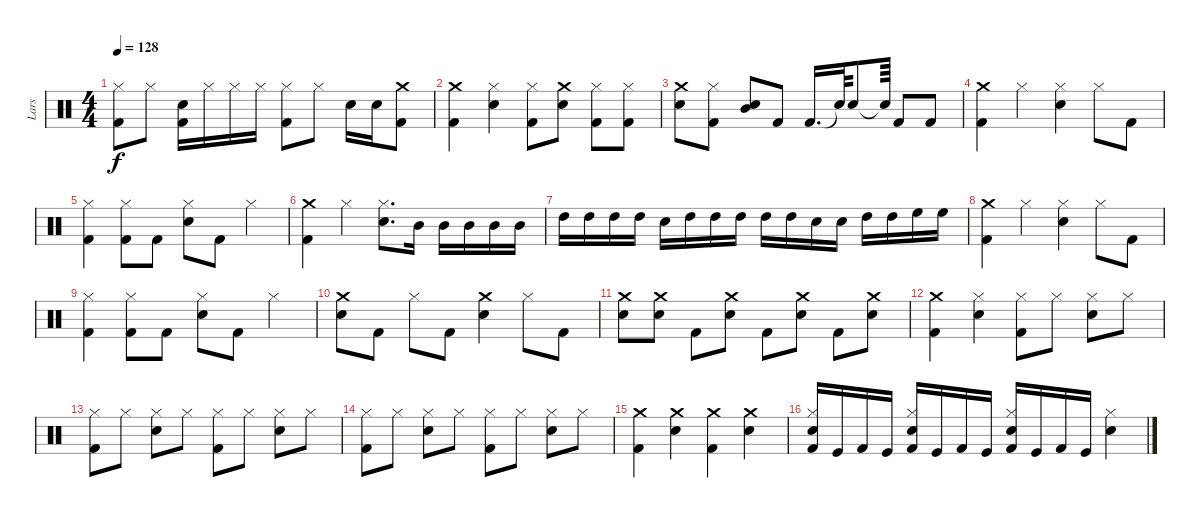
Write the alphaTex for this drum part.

\track ("Lars" "Lars") {instrument percussion}
\staff {score}
\articulation defaults
\ts (4 4)
\tempo 128
\clef neutral
\ks c
("Kick (hit) 2" "Hi-Hat (closed)").8{dy f} "Hi-Hat (closed)".8 ("Kick (hit) 2" "Snare (hit) 2").16 "Hi-Hat (closed)".16 "Hi-Hat (closed)".16 "Hi-Hat (closed)".16 ("Kick (hit) 2" "Hi-Hat (closed)").8 "Hi-Hat (closed)".8 "Snare (hit) 2".16 "Snare (hit) 2".16 ("Kick (hit) 2" "Crash medium (hit)").8 |
("Kick (hit) 2" "Crash medium (hit)").4 ("Snare (hit) 2" "Hi-Hat (closed)").4 ("Kick (hit) 2" "Hi-Hat (closed)").8 ("Crash medium (hit)" "Snare (hit) 2").8 ("Kick (hit) 2" "Hi-Hat (closed)").8 ("Kick (hit) 2" "Hi-Hat (closed)").8 |
("Snare (hit) 2" "Crash medium (hit)").8 ("Kick (hit) 2" "Hi-Hat (closed)").8 ("Mid Tom (hit)" "Snare (hit) 2").8 "Kick (hit) 2".8 "Kick (hit) 2".16{d} "Snare (hit)"{t}.64 "Snare (hit) 2".8 "Snare (hit)"{t}.64 "Kick (hit) 2".8 "Kick (hit) 2".8 |
("Kick (hit) 2" "Crash medium (hit)").4 "Hi-Hat (closed)".4 ("Snare (hit) 2" "Hi-Hat (closed)").4 "Hi-Hat (closed)".8 "Kick (hit) 2".8 |
("Hi-Hat (closed)" "Kick (hit) 2").4 ("Hi-Hat (closed)" "Kick (hit) 2").8 "Kick (hit) 2".8 ("Snare (hit) 2" "Hi-Hat (closed)").8 "Kick (hit) 2".8 "Hi-Hat (closed)".4 |
("Crash medium (hit)" "Kick (hit) 2").4 "Hi-Hat (closed)".4 ("Snare (hit) 2" "Hi-Hat (closed)").8{d} "Mid Tom (hit)".16 "Mid Tom (hit)".16 "Mid Tom (hit)".16 "Mid Tom (hit)".16 "Mid Tom (hit)".16 |
"High Tom (hit)".16 "High Tom (hit)".16 "High Tom (hit)".16 "High Tom (hit)".16 "Snare (hit) 2".16 "High Tom (hit)".16 "High Tom (hit)".16 "High Tom (hit)".16 "High Tom (hit)".16 "High Tom (hit)".16 "Snare (hit) 2".16 "Snare (hit) 2".16 "High Tom (hit)".16 "High Tom (hit)".16 "High Floor Tom (hit)".16 "High Floor Tom (hit)".16 |
("Kick (hit) 2" "Crash medium (hit)").4 "Hi-Hat (closed)".4 ("Snare (hit) 2" "Hi-Hat (closed)").4 "Hi-Hat (closed)".8 "Kick (hit) 2".8 |
("Kick (hit) 2" "Hi-Hat (closed)").4 ("Kick (hit) 2" "Hi-Hat (closed)").8 "Kick (hit) 2".8 ("Snare (hit) 2" "Hi-Hat (closed)").8 "Kick (hit) 2".8 "Hi-Hat (closed)".4 |
("Crash medium (hit)" "Snare (hit) 2").8 "Kick (hit) 2".8 "Hi-Hat (closed)".8 "Kick (hit) 2".8 ("Crash medium (hit)" "Snare (hit) 2").4 "Hi-Hat (closed)".8 "Kick (hit) 2".8 |
("Crash medium (hit)" "Snare (hit) 2").8 ("Crash medium (hit)" "Snare (hit) 2").8 "Kick (hit) 2".8 ("Crash medium (hit)" "Snare (hit) 2").8 "Kick (hit) 2".8 ("Snare (hit) 2" "Crash medium (hit)").8 "Kick (hit) 2".8 ("Snare (hit) 2" "Crash medium (hit)").8 |
("Kick (hit) 2" "Crash medium (hit)").4 ("Hi-Hat (closed)" "Snare (hit) 2").4 ("Hi-Hat (closed)" "Kick (hit) 2").8 "Hi-Hat (closed)".8 ("Snare (hit) 2" "Hi-Hat (closed)").8 "Hi-Hat (closed)".8 |
("Hi-Hat (closed)" "Kick (hit) 2").8 "Hi-Hat (closed)".8 ("Snare (hit) 2" "Hi-Hat (closed)").8 "Hi-Hat (closed)".8 ("Hi-Hat (closed)" "Kick (hit) 2").8 "Hi-Hat (closed)".8 ("Snare (hit) 2" "Hi-Hat (closed)").8 "Hi-Hat (closed)".8 |
("Hi-Hat (closed)" "Kick (hit) 2").8 "Hi-Hat (closed)".8 ("Snare (hit) 2" "Hi-Hat (closed)").8 "Hi-Hat (closed)".8 ("Hi-Hat (closed)" "Kick (hit) 2").8 "Hi-Hat (closed)".8 ("Snare (hit) 2" "Hi-Hat (closed)").8 "Hi-Hat (closed)".8 |
("Kick (hit) 2" "Crash medium (hit)").4 ("Snare (hit) 2" "Crash medium (hit)").4 ("Kick (hit) 2" "Crash medium (hit)").4 ("Snare (hit) 2" "Crash medium (hit)").4 |
("Kick (hit) 2" "Snare (hit) 2" "Hi-Hat (closed)").16 "Kick (hit)".16 "Kick (hit) 2".16 "Kick (hit)".16 ("Kick (hit) 2" "Snare (hit) 2" "Hi-Hat (closed)").16 "Kick (hit)".16 "Kick (hit) 2".16 "Kick (hit)".16 ("Kick (hit) 2" "Snare (hit) 2" "Hi-Hat (closed)").16 "Kick (hit)".16 "Kick (hit) 2".16 "Kick (hit)".16 ("Snare (hit) 2" "Hi-Hat (closed)").4
